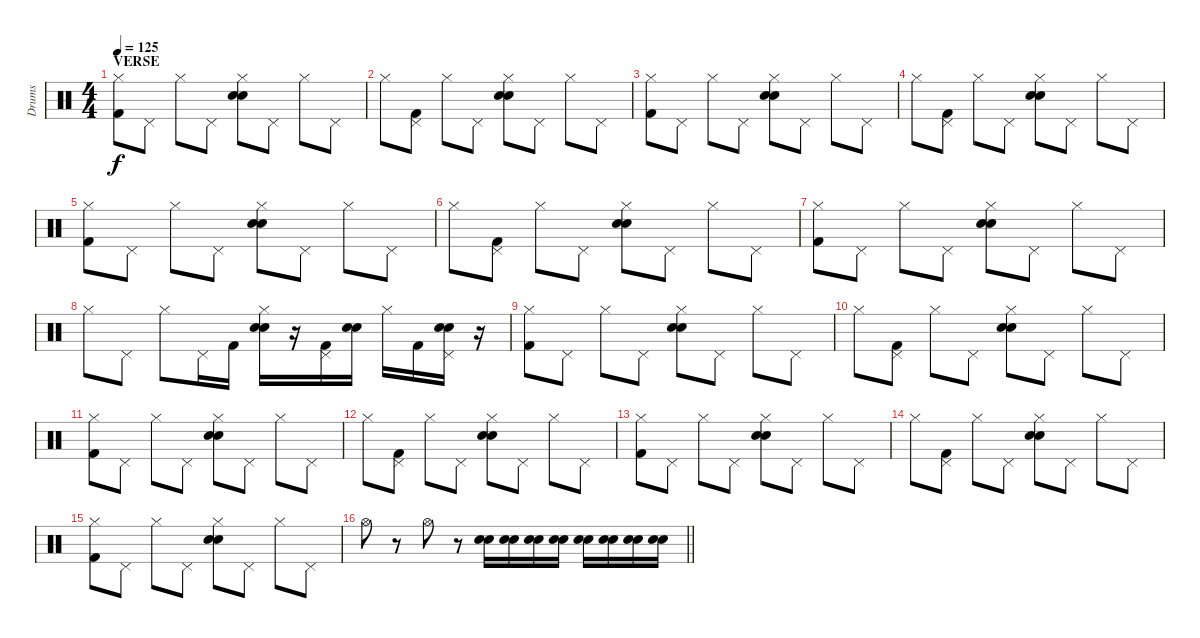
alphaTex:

\track ("Drums" "Drums") {instrument percussion}
\staff {score}
\articulation defaults
\ts (4 4)
\section ("" "VERSE")
\tempo 125
\clef neutral
\ks c
("Hi-Hat (closed)" "Kick (hit) 2").8{dy f} "Pedal Hi-Hat (hit)".8 "Hi-Hat (closed)".8 "Pedal Hi-Hat (hit)".8 ("Hi-Hat (closed)" "Snare (hit) 2" "Electric Snare (hit)").8 "Pedal Hi-Hat (hit)".8 "Hi-Hat (closed)".8 "Pedal Hi-Hat (hit)".8 |
"Hi-Hat (closed)".8 ("Pedal Hi-Hat (hit)" "Kick (hit) 2").8 "Hi-Hat (closed)".8 "Pedal Hi-Hat (hit)".8 ("Hi-Hat (closed)" "Snare (hit) 2" "Electric Snare (hit)").8 "Pedal Hi-Hat (hit)".8 "Hi-Hat (closed)".8 "Pedal Hi-Hat (hit)".8 |
("Hi-Hat (closed)" "Kick (hit) 2").8 "Pedal Hi-Hat (hit)".8 "Hi-Hat (closed)".8 "Pedal Hi-Hat (hit)".8 ("Hi-Hat (closed)" "Snare (hit) 2" "Electric Snare (hit)").8 "Pedal Hi-Hat (hit)".8 "Hi-Hat (closed)".8 "Pedal Hi-Hat (hit)".8 |
"Hi-Hat (closed)".8 ("Pedal Hi-Hat (hit)" "Kick (hit) 2").8 "Hi-Hat (closed)".8 "Pedal Hi-Hat (hit)".8 ("Hi-Hat (closed)" "Snare (hit) 2" "Electric Snare (hit)").8 "Pedal Hi-Hat (hit)".8 "Hi-Hat (closed)".8 "Pedal Hi-Hat (hit)".8 |
("Hi-Hat (closed)" "Kick (hit) 2").8 "Pedal Hi-Hat (hit)".8 "Hi-Hat (closed)".8 "Pedal Hi-Hat (hit)".8 ("Hi-Hat (closed)" "Snare (hit) 2" "Electric Snare (hit)").8 "Pedal Hi-Hat (hit)".8 "Hi-Hat (closed)".8 "Pedal Hi-Hat (hit)".8 |
"Hi-Hat (closed)".8 ("Pedal Hi-Hat (hit)" "Kick (hit) 2").8 "Hi-Hat (closed)".8 "Pedal Hi-Hat (hit)".8 ("Hi-Hat (closed)" "Snare (hit) 2" "Electric Snare (hit)").8 "Pedal Hi-Hat (hit)".8 "Hi-Hat (closed)".8 "Pedal Hi-Hat (hit)".8 |
("Hi-Hat (closed)" "Kick (hit) 2").8 "Pedal Hi-Hat (hit)".8 "Hi-Hat (closed)".8 "Pedal Hi-Hat (hit)".8 ("Hi-Hat (closed)" "Snare (hit) 2" "Electric Snare (hit)").8 "Pedal Hi-Hat (hit)".8 "Hi-Hat (closed)".8 "Pedal Hi-Hat (hit)".8 |
"Hi-Hat (closed)".8 "Pedal Hi-Hat (hit)".8 "Hi-Hat (closed)".8 "Pedal Hi-Hat (hit)".16 "Kick (hit) 2".16 ("Hi-Hat (closed)" "Snare (hit) 2" "Electric Snare (hit)").16 r.16 ("Pedal Hi-Hat (hit)" "Kick (hit) 2").16 ("Snare (hit) 2" "Electric Snare (hit)").16 "Hi-Hat (closed)".16 "Kick (hit) 2".16 ("Pedal Hi-Hat (hit)" "Snare (hit) 2" "Electric Snare (hit)").16 r.16 |
("Hi-Hat (closed)" "Kick (hit) 2").8 "Pedal Hi-Hat (hit)".8 "Hi-Hat (closed)".8 "Pedal Hi-Hat (hit)".8 ("Hi-Hat (closed)" "Snare (hit) 2" "Electric Snare (hit)").8 "Pedal Hi-Hat (hit)".8 "Hi-Hat (closed)".8 "Pedal Hi-Hat (hit)".8 |
"Hi-Hat (closed)".8 ("Pedal Hi-Hat (hit)" "Kick (hit) 2").8 "Hi-Hat (closed)".8 "Pedal Hi-Hat (hit)".8 ("Hi-Hat (closed)" "Snare (hit) 2" "Electric Snare (hit)").8 "Pedal Hi-Hat (hit)".8 "Hi-Hat (closed)".8 "Pedal Hi-Hat (hit)".8 |
("Hi-Hat (closed)" "Kick (hit) 2").8 "Pedal Hi-Hat (hit)".8 "Hi-Hat (closed)".8 "Pedal Hi-Hat (hit)".8 ("Hi-Hat (closed)" "Snare (hit) 2" "Electric Snare (hit)").8 "Pedal Hi-Hat (hit)".8 "Hi-Hat (closed)".8 "Pedal Hi-Hat (hit)".8 |
"Hi-Hat (closed)".8 ("Pedal Hi-Hat (hit)" "Kick (hit) 2").8 "Hi-Hat (closed)".8 "Pedal Hi-Hat (hit)".8 ("Hi-Hat (closed)" "Snare (hit) 2" "Electric Snare (hit)").8 "Pedal Hi-Hat (hit)".8 "Hi-Hat (closed)".8 "Pedal Hi-Hat (hit)".8 |
("Hi-Hat (closed)" "Kick (hit) 2").8 "Pedal Hi-Hat (hit)".8 "Hi-Hat (closed)".8 "Pedal Hi-Hat (hit)".8 ("Hi-Hat (closed)" "Snare (hit) 2" "Electric Snare (hit)").8 "Pedal Hi-Hat (hit)".8 "Hi-Hat (closed)".8 "Pedal Hi-Hat (hit)".8 |
"Hi-Hat (closed)".8 ("Pedal Hi-Hat (hit)" "Kick (hit) 2").8 "Hi-Hat (closed)".8 "Pedal Hi-Hat (hit)".8 ("Hi-Hat (closed)" "Snare (hit) 2" "Electric Snare (hit)").8 "Pedal Hi-Hat (hit)".8 "Hi-Hat (closed)".8 "Pedal Hi-Hat (hit)".8 |
("Hi-Hat (closed)" "Kick (hit) 2").8 "Pedal Hi-Hat (hit)".8 "Hi-Hat (closed)".8 "Pedal Hi-Hat (hit)".8 ("Hi-Hat (closed)" "Snare (hit) 2" "Electric Snare (hit)").8 "Pedal Hi-Hat (hit)".8 "Hi-Hat (closed)".8 "Pedal Hi-Hat (hit)".8 |
\barLineRight lightlight "Hi-Hat (open)".8
r.8 "Hi-Hat (open)".8 r.8 ("Snare (hit) 2" "Electric Snare (hit)").16 ("Snare (hit) 2" "Electric Snare (hit)").16 ("Snare (hit) 2" "Electric Snare (hit)").16 ("Snare (hit) 2" "Electric Snare (hit)").16 ("Snare (hit) 2" "Electric Snare (hit)").16 ("Snare (hit) 2" "Electric Snare (hit)").16 ("Snare (hit) 2" "Electric Snare (hit)").16 ("Snare (hit) 2" "Electric Snare (hit)").16
